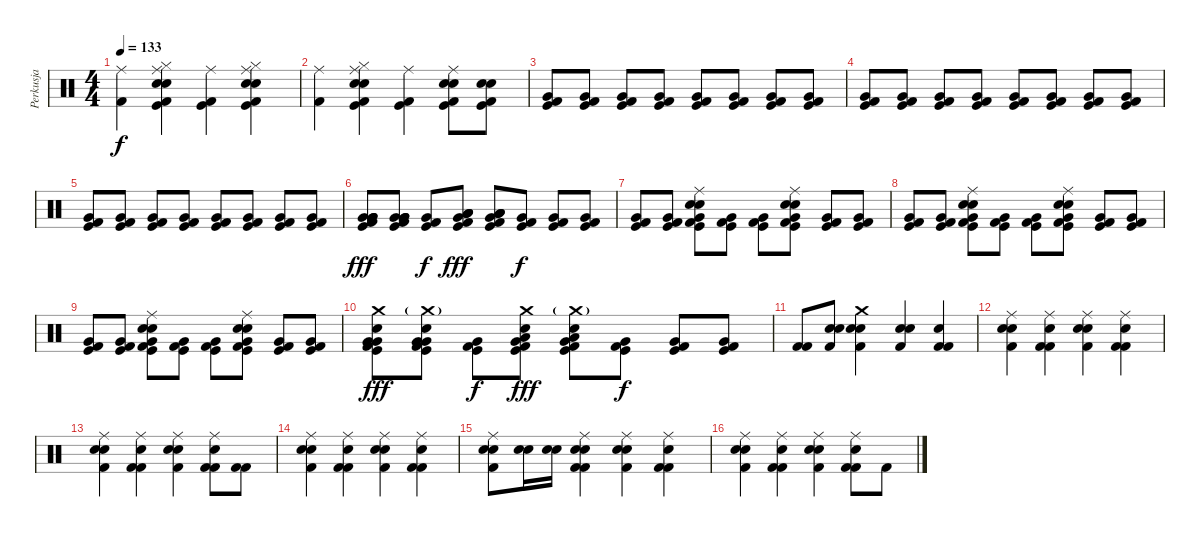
\track ("Perkusja" "Perkusja") {instrument percussion}
\staff {score}
\articulation defaults
\ts (4 4)
\tempo 133
\clef neutral
\ks c
("Ride (middle)" "Kick (hit) 2").4{dy f} ("Ride (middle)" "Hi-Hat (closed)" "Electric Snare (hit)" "Kick (hit)" "Snare (hit) 2" "Kick (hit) 2").4 ("Ride (middle)" "Kick (hit) 2" "Kick (hit)").4 ("Ride (middle)" "Hi-Hat (closed)" "Electric Snare (hit)" "Kick (hit)" "Snare (hit) 2" "Kick (hit) 2").4 |
("Ride (middle)" "Kick (hit) 2").4 ("Ride (middle)" "Hi-Hat (closed)" "Electric Snare (hit)" "Kick (hit)" "Snare (hit) 2" "Kick (hit) 2").4 ("Ride (middle)" "Kick (hit) 2" "Kick (hit)").4 ("Ride (middle)" "Electric Snare (hit)" "Kick (hit)" "Snare (hit) 2" "Kick (hit) 2").8 ("Electric Snare (hit)" "Kick (hit)" "Snare (hit) 2" "Kick (hit) 2").8 |
("Very Low Tom (hit)" "Kick (hit)" "Kick (hit) 2").8 ("Very Low Tom (hit)" "Kick (hit)" "Kick (hit) 2").8 ("Very Low Tom (hit)" "Kick (hit)" "Kick (hit) 2").8 ("Very Low Tom (hit)" "Kick (hit)" "Kick (hit) 2").8 ("Very Low Tom (hit)" "Kick (hit)" "Kick (hit) 2").8 ("Very Low Tom (hit)" "Kick (hit)" "Kick (hit) 2").8 ("Very Low Tom (hit)" "Kick (hit)" "Kick (hit) 2").8 ("Very Low Tom (hit)" "Kick (hit)" "Kick (hit) 2").8 |
("Very Low Tom (hit)" "Kick (hit)" "Kick (hit) 2").8 ("Very Low Tom (hit)" "Kick (hit)" "Kick (hit) 2").8 ("Very Low Tom (hit)" "Kick (hit)" "Kick (hit) 2").8 ("Very Low Tom (hit)" "Kick (hit)" "Kick (hit) 2").8 ("Very Low Tom (hit)" "Kick (hit)" "Kick (hit) 2").8 ("Very Low Tom (hit)" "Kick (hit)" "Kick (hit) 2").8 ("Very Low Tom (hit)" "Kick (hit)" "Kick (hit) 2").8 ("Very Low Tom (hit)" "Kick (hit)" "Kick (hit) 2").8 |
("Very Low Tom (hit)" "Kick (hit)" "Kick (hit) 2").8 ("Very Low Tom (hit)" "Kick (hit)" "Kick (hit) 2").8 ("Very Low Tom (hit)" "Kick (hit)" "Kick (hit) 2").8 ("Very Low Tom (hit)" "Kick (hit)" "Kick (hit) 2").8 ("Very Low Tom (hit)" "Kick (hit)" "Kick (hit) 2").8 ("Very Low Tom (hit)" "Kick (hit)" "Kick (hit) 2").8 ("Very Low Tom (hit)" "Kick (hit)" "Kick (hit) 2").8 ("Very Low Tom (hit)" "Kick (hit)" "Kick (hit) 2").8 |
("Very Low Tom (hit)" "Very Low Tom (hit)" "Very Low Tom (hit)" "Very Low Tom (hit)" "Kick (hit)" "Kick (hit) 2").8{dy fff} ("Very Low Tom (hit)" "Very Low Tom (hit)" "Very Low Tom (hit)" "Very Low Tom (hit)" "Kick (hit)" "Kick (hit) 2").8 ("Very Low Tom (hit)" "Kick (hit)" "Kick (hit) 2").8{dy f} ("Low Floor Tom (hit)" "Low Floor Tom (hit)" "Low Floor Tom (hit)" "Very Low Tom (hit)" "Kick (hit)" "Kick (hit) 2").8{dy fff} ("Low Floor Tom (hit)" "Low Floor Tom (hit)" "Low Floor Tom (hit)" "Very Low Tom (hit)" "Kick (hit)" "Kick (hit) 2").8 ("Very Low Tom (hit)" "Kick (hit)" "Kick (hit) 2").8{dy f} ("Very Low Tom (hit)" "Kick (hit)" "Kick (hit) 2").8 ("Very Low Tom (hit)" "Kick (hit)" "Kick (hit) 2").8 |
("Very Low Tom (hit)" "Kick (hit)" "Kick (hit) 2").8 ("Very Low Tom (hit)" "Kick (hit)" "Kick (hit) 2").8 ("Snare (hit) 2" "Ride (middle)" "Electric Snare (hit)" "Very Low Tom (hit)" "Kick (hit)" "Kick (hit) 2").8 ("Very Low Tom (hit)" "Kick (hit)" "Kick (hit) 2").8 ("Very Low Tom (hit)" "Kick (hit)" "Kick (hit) 2").8 ("Snare (hit) 2" "Ride (middle)" "Electric Snare (hit)" "Very Low Tom (hit)" "Kick (hit)" "Kick (hit) 2").8 ("Very Low Tom (hit)" "Kick (hit)" "Kick (hit) 2").8 ("Very Low Tom (hit)" "Kick (hit)" "Kick (hit) 2").8 |
("Very Low Tom (hit)" "Kick (hit)" "Kick (hit) 2").8 ("Very Low Tom (hit)" "Kick (hit)" "Kick (hit) 2").8 ("Snare (hit) 2" "Ride (middle)" "Electric Snare (hit)" "Very Low Tom (hit)" "Kick (hit)" "Kick (hit) 2").8 ("Very Low Tom (hit)" "Kick (hit)" "Kick (hit) 2").8 ("Very Low Tom (hit)" "Kick (hit)" "Kick (hit) 2").8 ("Snare (hit) 2" "Ride (middle)" "Electric Snare (hit)" "Very Low Tom (hit)" "Kick (hit)" "Kick (hit) 2").8 ("Very Low Tom (hit)" "Kick (hit)" "Kick (hit) 2").8 ("Very Low Tom (hit)" "Kick (hit)" "Kick (hit) 2").8 |
("Very Low Tom (hit)" "Kick (hit)" "Kick (hit) 2").8 ("Very Low Tom (hit)" "Kick (hit)" "Kick (hit) 2").8 ("Snare (hit) 2" "Ride (middle)" "Electric Snare (hit)" "Very Low Tom (hit)" "Kick (hit)" "Kick (hit) 2").8 ("Very Low Tom (hit)" "Kick (hit)" "Kick (hit) 2").8 ("Very Low Tom (hit)" "Kick (hit)" "Kick (hit) 2").8 ("Snare (hit) 2" "Ride (middle)" "Electric Snare (hit)" "Very Low Tom (hit)" "Kick (hit)" "Kick (hit) 2").8 ("Very Low Tom (hit)" "Kick (hit)" "Kick (hit) 2").8 ("Very Low Tom (hit)" "Kick (hit)" "Kick (hit) 2").8 |
("Crash medium (hit)" "Snare (hit) 2" "Very Low Tom (hit)" "Very Low Tom (hit)" "Kick (hit)" "Kick (hit) 2").8{dy fff} ("Crash medium (hit)"{g} "Snare (hit) 2" "Very Low Tom (hit)" "Very Low Tom (hit)" "Kick (hit)" "Kick (hit) 2").8 ("Very Low Tom (hit)" "Kick (hit)" "Kick (hit) 2").8{dy f} ("Crash medium (hit)" "Snare (hit) 2" "Low Floor Tom (hit)" "Very Low Tom (hit)" "Kick (hit)" "Kick (hit) 2").8{dy fff} ("Crash medium (hit)"{g} "Snare (hit) 2" "Low Floor Tom (hit)" "Very Low Tom (hit)" "Kick (hit)" "Kick (hit) 2").8 ("Very Low Tom (hit)" "Kick (hit)" "Kick (hit) 2").8{dy f} ("Very Low Tom (hit)" "Kick (hit)" "Kick (hit) 2").8 ("Very Low Tom (hit)" "Kick (hit)" "Kick (hit) 2").8 |
("Kick (hit) 2" "Kick (hit) 2").8 ("Electric Snare (hit)" "Electric Snare (hit)" "Kick (hit) 2").8 ("Crash medium (hit)" "Electric Snare (hit)" "Electric Snare (hit)" "Kick (hit) 2").4 ("Kick (hit) 2" "Electric Snare (hit)" "Electric Snare (hit)").4 ("Snare (hit) 2" "Kick (hit) 2" "Kick (hit) 2").4 |
("Ride (middle)" "Kick (hit) 2" "Electric Snare (hit)" "Electric Snare (hit)").4 ("Ride (middle)" "Snare (hit) 2" "Kick (hit) 2" "Kick (hit) 2").4 ("Ride (middle)" "Kick (hit) 2" "Electric Snare (hit)" "Electric Snare (hit)").4 ("Ride (middle)" "Snare (hit) 2" "Kick (hit) 2" "Kick (hit) 2").4 |
("Ride (middle)" "Kick (hit) 2" "Electric Snare (hit)" "Electric Snare (hit)").4 ("Ride (middle)" "Snare (hit) 2" "Kick (hit) 2" "Kick (hit) 2").4 ("Ride (middle)" "Kick (hit) 2" "Electric Snare (hit)" "Electric Snare (hit)").4 ("Ride (middle)" "Snare (hit) 2" "Kick (hit) 2" "Kick (hit) 2").8 ("Kick (hit) 2" "Kick (hit) 2").8 |
("Ride (middle)" "Kick (hit) 2" "Electric Snare (hit)" "Electric Snare (hit)").4 ("Ride (middle)" "Snare (hit) 2" "Kick (hit) 2" "Kick (hit) 2").4 ("Ride (middle)" "Kick (hit) 2" "Electric Snare (hit)" "Electric Snare (hit)").4 ("Ride (middle)" "Snare (hit) 2" "Kick (hit) 2" "Kick (hit) 2").4 |
("Ride (middle)" "Kick (hit) 2" "Electric Snare (hit)" "Electric Snare (hit)").8 ("Electric Snare (hit)" "Electric Snare (hit)").16 ("Electric Snare (hit)" "Electric Snare (hit)").16 ("Ride (middle)" "Snare (hit) 2" "Kick (hit) 2" "Kick (hit) 2" "Electric Snare (hit)").4 ("Ride (middle)" "Kick (hit) 2" "Electric Snare (hit)" "Electric Snare (hit)").4 ("Ride (middle)" "Snare (hit) 2" "Kick (hit) 2" "Kick (hit) 2").4 |
("Ride (middle)" "Kick (hit) 2" "Electric Snare (hit)" "Electric Snare (hit)").4 ("Ride (middle)" "Snare (hit) 2" "Kick (hit) 2" "Kick (hit) 2").4 ("Ride (middle)" "Kick (hit) 2" "Electric Snare (hit)" "Electric Snare (hit)").4 ("Ride (middle)" "Snare (hit) 2" "Kick (hit) 2" "Kick (hit) 2").8 "Kick (hit) 2".8
